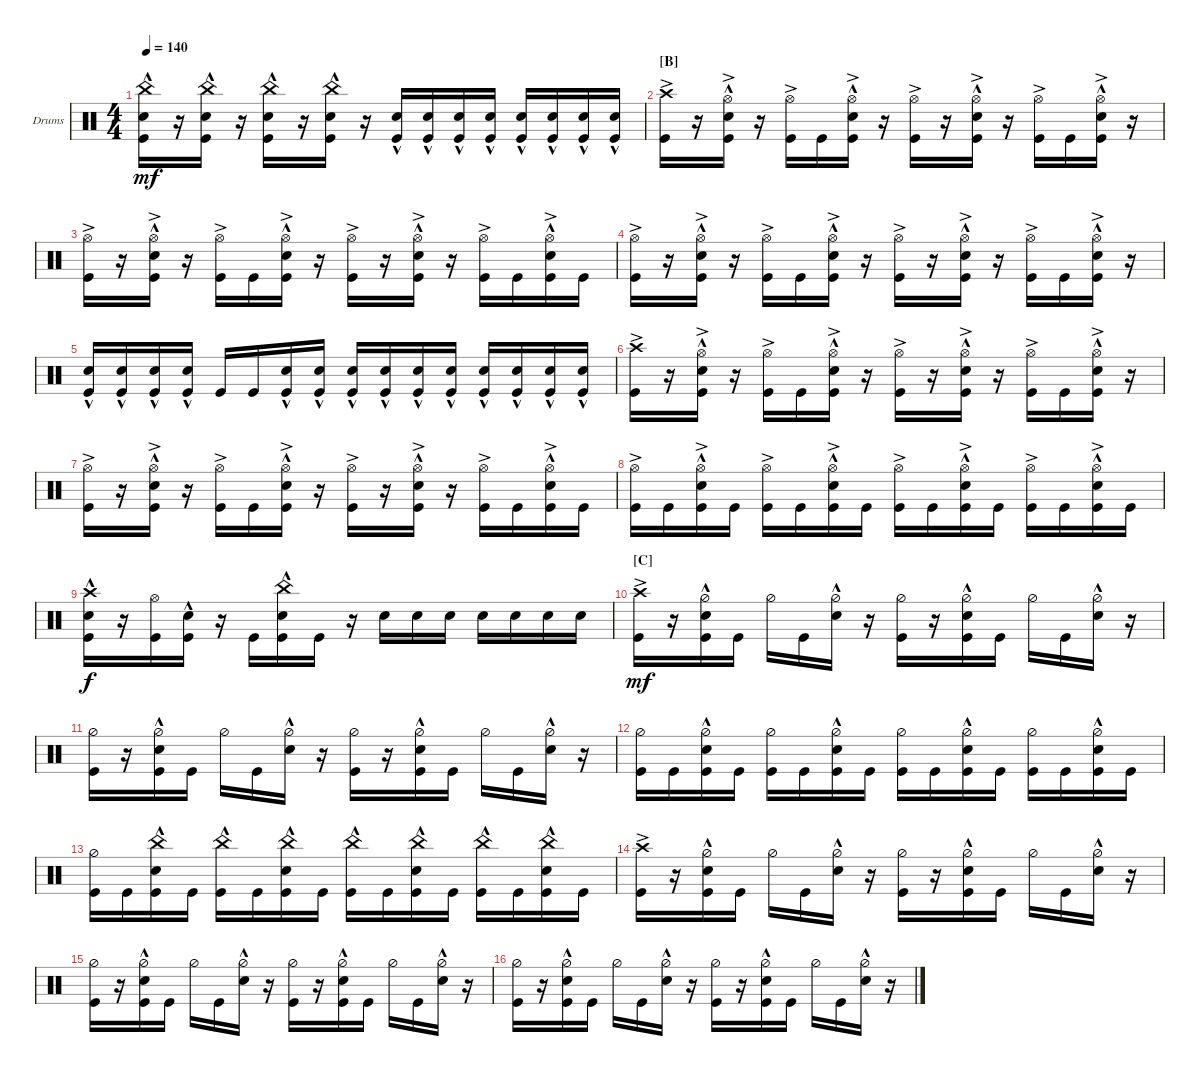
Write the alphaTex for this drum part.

\defaultSystemsLayout 4
\bracketExtendMode groupsimilarinstruments
\firstSystemTrackNameOrientation horizontal
\otherSystemsTrackNameOrientation horizontal
\track ("Drumkit" "Drums") {instrument percussion}
\staff {score}
\articulation defaults
\ts (4 4)
\tempo 140
\clef neutral
\ks c
("Kick (hit)" "Snare (hit) 2"{hac} "China (hit)"{hac}).16{dy mf} r.16 ("Kick (hit)" "Snare (hit) 2"{hac} "China (hit)"{hac}).16 r.16 ("Kick (hit)" "Snare (hit) 2"{hac} "China (hit)"{hac}).16 r.16 ("Kick (hit)" "Snare (hit) 2"{hac} "China (hit)"{hac}).16 r.16 ("Snare (hit) 2"{hac} "Kick (hit)").16 ("Snare (hit) 2"{hac} "Kick (hit)").16 ("Snare (hit) 2"{hac} "Kick (hit)").16 ("Snare (hit) 2"{hac} "Kick (hit)").16 ("Snare (hit) 2"{hac} "Kick (hit)").16 ("Snare (hit) 2"{hac} "Kick (hit)").16 ("Snare (hit) 2"{hac} "Kick (hit)").16 ("Snare (hit) 2"{hac} "Kick (hit)").16 |
\section ("B" "")
("Kick (hit)" "Crash high (hit)"{ac}).16 r.16 ("Kick (hit)" "Snare (hit) 2"{hac} "Hi-Hat (open)"{ac}).16 r.16 ("Kick (hit)" "Hi-Hat (open)"{ac}).16 "Kick (hit)".16 ("Kick (hit)" "Snare (hit) 2"{hac} "Hi-Hat (open)"{ac}).16 r.16 ("Kick (hit)" "Hi-Hat (open)"{ac}).16 r.16 ("Kick (hit)" "Snare (hit) 2"{hac} "Hi-Hat (open)"{ac}).16 r.16 ("Kick (hit)" "Hi-Hat (open)"{ac}).16 "Kick (hit)".16 ("Kick (hit)" "Snare (hit) 2"{hac} "Hi-Hat (open)"{ac}).16 r.16 |
("Kick (hit)" "Hi-Hat (open)"{ac}).16 r.16 ("Kick (hit)" "Snare (hit) 2"{hac} "Hi-Hat (open)"{ac}).16 r.16 ("Kick (hit)" "Hi-Hat (open)"{ac}).16 "Kick (hit)".16 ("Kick (hit)" "Snare (hit) 2"{hac} "Hi-Hat (open)"{ac}).16 r.16 ("Kick (hit)" "Hi-Hat (open)"{ac}).16 r.16 ("Kick (hit)" "Snare (hit) 2"{hac} "Hi-Hat (open)"{ac}).16 r.16 ("Kick (hit)" "Hi-Hat (open)"{ac}).16 "Kick (hit)".16 ("Kick (hit)" "Snare (hit) 2"{hac} "Hi-Hat (open)"{ac}).16 "Kick (hit)".16 |
("Kick (hit)" "Hi-Hat (open)"{ac}).16 r.16 ("Kick (hit)" "Snare (hit) 2"{hac} "Hi-Hat (open)"{ac}).16 r.16 ("Kick (hit)" "Hi-Hat (open)"{ac}).16 "Kick (hit)".16 ("Kick (hit)" "Snare (hit) 2"{hac} "Hi-Hat (open)"{ac}).16 r.16 ("Kick (hit)" "Hi-Hat (open)"{ac}).16 r.16 ("Kick (hit)" "Snare (hit) 2"{hac} "Hi-Hat (open)"{ac}).16 r.16 ("Kick (hit)" "Hi-Hat (open)"{ac}).16 "Kick (hit)".16 ("Kick (hit)" "Snare (hit) 2"{hac} "Hi-Hat (open)"{ac}).16 r.16 |
("Kick (hit)" "Snare (hit) 2"{hac}).16 ("Kick (hit)" "Snare (hit) 2"{hac}).16 ("Kick (hit)" "Snare (hit) 2"{hac}).16 ("Kick (hit)" "Snare (hit) 2"{hac}).16 "Kick (hit)".16 "Kick (hit)".16 ("Kick (hit)" "Snare (hit) 2"{hac}).16 ("Kick (hit)" "Snare (hit) 2"{hac}).16 ("Snare (hit) 2"{hac} "Kick (hit)").16 ("Snare (hit) 2"{hac} "Kick (hit)").16 ("Snare (hit) 2"{hac} "Kick (hit)").16 ("Snare (hit) 2"{hac} "Kick (hit)").16 ("Snare (hit) 2"{hac} "Kick (hit)").16 ("Snare (hit) 2"{hac} "Kick (hit)").16 ("Snare (hit) 2"{hac} "Kick (hit)").16 ("Snare (hit) 2"{hac} "Kick (hit)").16 |
("Kick (hit)" "Crash high (hit)"{ac}).16 r.16 ("Kick (hit)" "Snare (hit) 2"{hac} "Hi-Hat (open)"{ac}).16 r.16 ("Kick (hit)" "Hi-Hat (open)"{ac}).16 "Kick (hit)".16 ("Kick (hit)" "Snare (hit) 2"{hac} "Hi-Hat (open)"{ac}).16 r.16 ("Kick (hit)" "Hi-Hat (open)"{ac}).16 r.16 ("Kick (hit)" "Snare (hit) 2"{hac} "Hi-Hat (open)"{ac}).16 r.16 ("Kick (hit)" "Hi-Hat (open)"{ac}).16 "Kick (hit)".16 ("Kick (hit)" "Snare (hit) 2"{hac} "Hi-Hat (open)"{ac}).16 r.16 |
("Kick (hit)" "Hi-Hat (open)"{ac}).16 r.16 ("Kick (hit)" "Snare (hit) 2"{hac} "Hi-Hat (open)"{ac}).16 r.16 ("Kick (hit)" "Hi-Hat (open)"{ac}).16 "Kick (hit)".16 ("Kick (hit)" "Snare (hit) 2"{hac} "Hi-Hat (open)"{ac}).16 r.16 ("Kick (hit)" "Hi-Hat (open)"{ac}).16 r.16 ("Kick (hit)" "Snare (hit) 2"{hac} "Hi-Hat (open)"{ac}).16 r.16 ("Kick (hit)" "Hi-Hat (open)"{ac}).16 "Kick (hit)".16 ("Kick (hit)" "Snare (hit) 2"{hac} "Hi-Hat (open)"{ac}).16 "Kick (hit)".16 |
("Kick (hit)" "Hi-Hat (open)"{ac}).16 "Kick (hit)".16 ("Kick (hit)" "Snare (hit) 2"{hac} "Hi-Hat (open)"{ac}).16 "Kick (hit)".16 ("Kick (hit)" "Hi-Hat (open)"{ac}).16 "Kick (hit)".16 ("Kick (hit)" "Snare (hit) 2"{hac} "Hi-Hat (open)"{ac}).16 "Kick (hit)".16 ("Kick (hit)" "Hi-Hat (open)"{ac}).16 "Kick (hit)".16 ("Kick (hit)" "Snare (hit) 2"{hac} "Hi-Hat (open)"{ac}).16 "Kick (hit)".16 ("Kick (hit)" "Hi-Hat (open)"{ac}).16 "Kick (hit)".16 ("Kick (hit)" "Snare (hit) 2"{hac} "Hi-Hat (open)"{ac}).16 "Kick (hit)".16 |
("Kick (hit)" "Snare (hit) 2"{hac} "Crash high (hit)").16{dy f} r.16 ("Kick (hit)" "Hi-Hat (open)").16 ("Kick (hit)" "Snare (hit) 2"{hac}).16 r.16 "Kick (hit)".16 ("Kick (hit)" "Snare (hit) 2"{hac} "China (hit)"{hac}).16 "Kick (hit)".16 r.16 "Snare (hit) 2".16 "Snare (hit) 2".16 "Snare (hit) 2".16 "Snare (hit) 2".16 "Snare (hit) 2".16 "Snare (hit) 2".16 "Snare (hit) 2".16 |
\section ("C" "")
("Kick (hit)" "Crash high (hit)"{ac}).16{dy mf} r.16 ("Kick (hit)" "Snare (hit) 2"{hac} "Hi-Hat (half)").16 "Kick (hit)".16 "Hi-Hat (half)".16 "Kick (hit)".16 ("Snare (hit) 2"{hac} "Hi-Hat (half)").16 r.16 ("Kick (hit)" "Hi-Hat (half)").16 r.16 ("Kick (hit)" "Snare (hit) 2"{hac} "Hi-Hat (half)").16 "Kick (hit)".16 "Hi-Hat (half)".16 "Kick (hit)".16 ("Snare (hit) 2"{hac} "Hi-Hat (half)").16 r.16 |
("Kick (hit)" "Hi-Hat (half)").16 r.16 ("Kick (hit)" "Snare (hit) 2"{hac} "Hi-Hat (half)").16 "Kick (hit)".16 "Hi-Hat (half)".16 "Kick (hit)".16 ("Snare (hit) 2"{hac} "Hi-Hat (half)").16 r.16 ("Kick (hit)" "Hi-Hat (half)").16 r.16 ("Kick (hit)" "Snare (hit) 2"{hac} "Hi-Hat (half)").16 "Kick (hit)".16 "Hi-Hat (half)".16 "Kick (hit)".16 ("Snare (hit) 2"{hac} "Hi-Hat (half)").16 r.16 |
("Kick (hit)" "Hi-Hat (half)").16 "Kick (hit)".16 ("Kick (hit)" "Snare (hit) 2"{hac} "Hi-Hat (half)").16 "Kick (hit)".16 ("Kick (hit)" "Hi-Hat (half)").16 "Kick (hit)".16 ("Kick (hit)" "Snare (hit) 2"{hac} "Hi-Hat (half)").16 "Kick (hit)".16 ("Kick (hit)" "Hi-Hat (half)").16 "Kick (hit)".16 ("Kick (hit)" "Snare (hit) 2"{hac} "Hi-Hat (half)").16 "Kick (hit)".16 ("Kick (hit)" "Hi-Hat (half)").16 "Kick (hit)".16 ("Kick (hit)" "Snare (hit) 2"{hac} "Hi-Hat (half)").16 "Kick (hit)".16 |
("Kick (hit)" "Hi-Hat (half)").16 "Kick (hit)".16 ("Kick (hit)" "Snare (hit) 2"{hac} "China (hit)"{hac}).16 "Kick (hit)".16 ("Kick (hit)" "China (hit)"{hac}).16 "Kick (hit)".16 ("Kick (hit)" "Snare (hit) 2"{hac} "China (hit)"{hac}).16 "Kick (hit)".16 ("Kick (hit)" "China (hit)"{hac}).16 "Kick (hit)".16 ("Kick (hit)" "Snare (hit) 2"{hac} "China (hit)"{hac}).16 "Kick (hit)".16 ("Kick (hit)" "China (hit)"{hac}).16 "Kick (hit)".16 ("Kick (hit)" "Snare (hit) 2"{hac} "China (hit)"{hac}).16 "Kick (hit)".16 |
("Kick (hit)" "Crash high (hit)"{ac}).16 r.16 ("Kick (hit)" "Snare (hit) 2"{hac} "Hi-Hat (half)").16 "Kick (hit)".16 "Hi-Hat (half)".16 "Kick (hit)".16 ("Snare (hit) 2"{hac} "Hi-Hat (half)").16 r.16 ("Kick (hit)" "Hi-Hat (half)").16 r.16 ("Kick (hit)" "Snare (hit) 2"{hac} "Hi-Hat (half)").16 "Kick (hit)".16 "Hi-Hat (half)".16 "Kick (hit)".16 ("Snare (hit) 2"{hac} "Hi-Hat (half)").16 r.16 |
("Kick (hit)" "Hi-Hat (half)").16 r.16 ("Kick (hit)" "Snare (hit) 2"{hac} "Hi-Hat (half)").16 "Kick (hit)".16 "Hi-Hat (half)".16 "Kick (hit)".16 ("Snare (hit) 2"{hac} "Hi-Hat (half)").16 r.16 ("Kick (hit)" "Hi-Hat (half)").16 r.16 ("Kick (hit)" "Snare (hit) 2"{hac} "Hi-Hat (half)").16 "Kick (hit)".16 "Hi-Hat (half)".16 "Kick (hit)".16 ("Snare (hit) 2"{hac} "Hi-Hat (half)").16 r.16 |
("Kick (hit)" "Hi-Hat (half)").16 r.16 ("Kick (hit)" "Snare (hit) 2"{hac} "Hi-Hat (half)").16 "Kick (hit)".16 "Hi-Hat (half)".16 "Kick (hit)".16 ("Snare (hit) 2"{hac} "Hi-Hat (half)").16 r.16 ("Kick (hit)" "Hi-Hat (half)").16 r.16 ("Kick (hit)" "Snare (hit) 2"{hac} "Hi-Hat (half)").16 "Kick (hit)".16 "Hi-Hat (half)".16 "Kick (hit)".16 ("Snare (hit) 2"{hac} "Hi-Hat (half)").16 r.16
